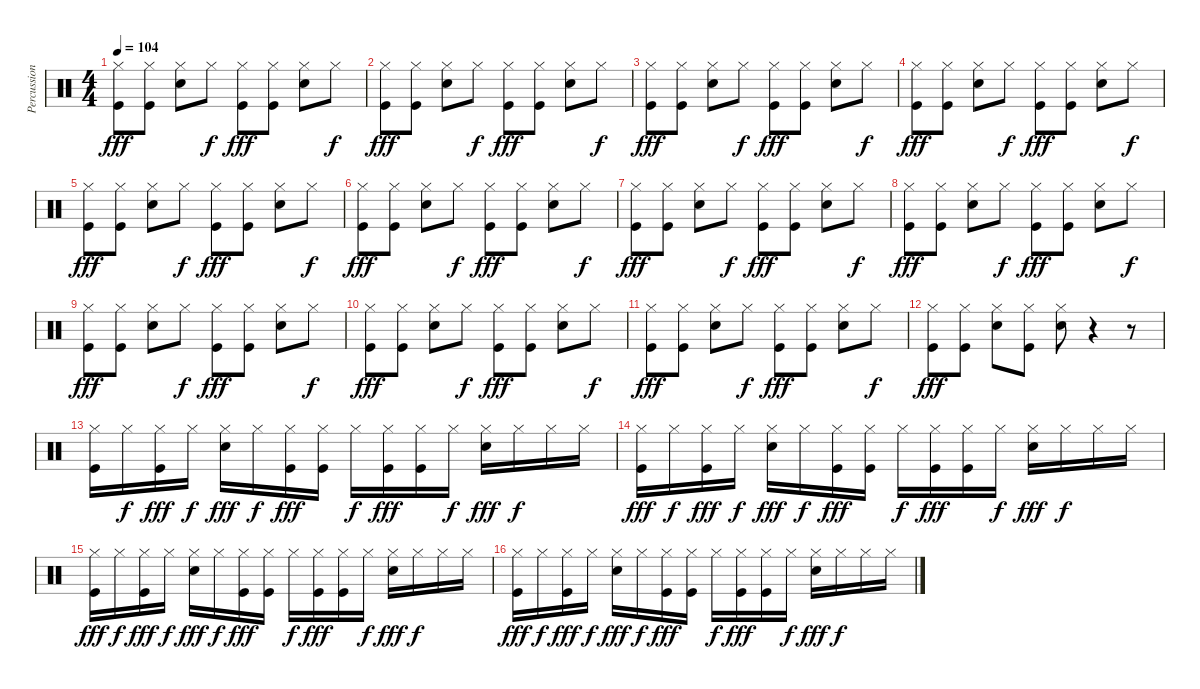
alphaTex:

\track ("Percussion" "Percussion") {instrument percussion}
\staff {score}
\articulation defaults
\ts (4 4)
\tempo 104
\clef neutral
\ks c
("Kick (hit)" "Hi-Hat (closed)").8{dy fff} ("Kick (hit)" "Hi-Hat (closed)").8 ("Snare (hit) 2" "Hi-Hat (closed)").8 "Hi-Hat (closed)".8{dy f} ("Kick (hit)" "Hi-Hat (closed)").8{dy fff} ("Kick (hit)" "Hi-Hat (closed)").8 ("Snare (hit) 2" "Hi-Hat (closed)").8 "Hi-Hat (closed)".8{dy f} |
("Kick (hit)" "Hi-Hat (closed)").8{dy fff} ("Kick (hit)" "Hi-Hat (closed)").8 ("Snare (hit) 2" "Hi-Hat (closed)").8 "Hi-Hat (closed)".8{dy f} ("Kick (hit)" "Hi-Hat (closed)").8{dy fff} ("Kick (hit)" "Hi-Hat (closed)").8 ("Snare (hit) 2" "Hi-Hat (closed)").8 "Hi-Hat (closed)".8{dy f} |
("Kick (hit)" "Hi-Hat (closed)").8{dy fff} ("Kick (hit)" "Hi-Hat (closed)").8 ("Snare (hit) 2" "Hi-Hat (closed)").8 "Hi-Hat (closed)".8{dy f} ("Kick (hit)" "Hi-Hat (closed)").8{dy fff} ("Kick (hit)" "Hi-Hat (closed)").8 ("Snare (hit) 2" "Hi-Hat (closed)").8 "Hi-Hat (closed)".8{dy f} |
("Kick (hit)" "Hi-Hat (closed)").8{dy fff} ("Kick (hit)" "Hi-Hat (closed)").8 ("Snare (hit) 2" "Hi-Hat (closed)").8 "Hi-Hat (closed)".8{dy f} ("Kick (hit)" "Hi-Hat (closed)").8{dy fff} ("Kick (hit)" "Hi-Hat (closed)").8 ("Snare (hit) 2" "Hi-Hat (closed)").8 "Hi-Hat (closed)".8{dy f} |
("Kick (hit)" "Hi-Hat (closed)").8{dy fff} ("Kick (hit)" "Hi-Hat (closed)").8 ("Snare (hit) 2" "Hi-Hat (closed)").8 "Hi-Hat (closed)".8{dy f} ("Kick (hit)" "Hi-Hat (closed)").8{dy fff} ("Kick (hit)" "Hi-Hat (closed)").8 ("Snare (hit) 2" "Hi-Hat (closed)").8 "Hi-Hat (closed)".8{dy f} |
("Kick (hit)" "Hi-Hat (closed)").8{dy fff} ("Kick (hit)" "Hi-Hat (closed)").8 ("Snare (hit) 2" "Hi-Hat (closed)").8 "Hi-Hat (closed)".8{dy f} ("Kick (hit)" "Hi-Hat (closed)").8{dy fff} ("Kick (hit)" "Hi-Hat (closed)").8 ("Snare (hit) 2" "Hi-Hat (closed)").8 "Hi-Hat (closed)".8{dy f} |
("Kick (hit)" "Hi-Hat (closed)").8{dy fff} ("Kick (hit)" "Hi-Hat (closed)").8 ("Snare (hit) 2" "Hi-Hat (closed)").8 "Hi-Hat (closed)".8{dy f} ("Kick (hit)" "Hi-Hat (closed)").8{dy fff} ("Kick (hit)" "Hi-Hat (closed)").8 ("Snare (hit) 2" "Hi-Hat (closed)").8 "Hi-Hat (closed)".8{dy f} |
("Kick (hit)" "Hi-Hat (closed)").8{dy fff} ("Kick (hit)" "Hi-Hat (closed)").8 ("Snare (hit) 2" "Hi-Hat (closed)").8 "Hi-Hat (closed)".8{dy f} ("Kick (hit)" "Hi-Hat (closed)").8{dy fff} ("Kick (hit)" "Hi-Hat (closed)").8 ("Snare (hit) 2" "Hi-Hat (closed)").8 "Hi-Hat (closed)".8{dy f} |
("Kick (hit)" "Hi-Hat (closed)").8{dy fff} ("Kick (hit)" "Hi-Hat (closed)").8 ("Snare (hit) 2" "Hi-Hat (closed)").8 "Hi-Hat (closed)".8{dy f} ("Kick (hit)" "Hi-Hat (closed)").8{dy fff} ("Kick (hit)" "Hi-Hat (closed)").8 ("Snare (hit) 2" "Hi-Hat (closed)").8 "Hi-Hat (closed)".8{dy f} |
("Kick (hit)" "Hi-Hat (closed)").8{dy fff} ("Kick (hit)" "Hi-Hat (closed)").8 ("Snare (hit) 2" "Hi-Hat (closed)").8 "Hi-Hat (closed)".8{dy f} ("Kick (hit)" "Hi-Hat (closed)").8{dy fff} ("Kick (hit)" "Hi-Hat (closed)").8 ("Snare (hit) 2" "Hi-Hat (closed)").8 "Hi-Hat (closed)".8{dy f} |
("Kick (hit)" "Hi-Hat (closed)").8{dy fff} ("Kick (hit)" "Hi-Hat (closed)").8 ("Snare (hit) 2" "Hi-Hat (closed)").8 "Hi-Hat (closed)".8{dy f} ("Kick (hit)" "Hi-Hat (closed)").8{dy fff} ("Kick (hit)" "Hi-Hat (closed)").8 ("Snare (hit) 2" "Hi-Hat (closed)").8 "Hi-Hat (closed)".8{dy f} |
("Kick (hit)" "Hi-Hat (closed)").8{dy fff} ("Kick (hit)" "Hi-Hat (closed)").8 ("Snare (hit) 2" "Hi-Hat (closed)").8 ("Kick (hit)" "Hi-Hat (closed)").8 ("Snare (hit) 2" "Hi-Hat (closed)").8 r.4 r.8 |
("Kick (hit)" "Hi-Hat (closed)").16 "Hi-Hat (closed)".16{dy f} ("Kick (hit)" "Hi-Hat (closed)").16{dy fff} "Hi-Hat (closed)".16{dy f} ("Snare (hit) 2" "Hi-Hat (closed)").16{dy fff} "Hi-Hat (closed)".16{dy f} ("Kick (hit)" "Hi-Hat (closed)").16{dy fff} ("Kick (hit)" "Hi-Hat (closed)").16 "Hi-Hat (closed)".16{dy f} ("Kick (hit)" "Hi-Hat (closed)").16{dy fff} ("Kick (hit)" "Hi-Hat (closed)").16 "Hi-Hat (closed)".16{dy f} ("Snare (hit) 2" "Hi-Hat (closed)").16{dy fff} "Hi-Hat (closed)".16{dy f} "Hi-Hat (closed)".16 "Hi-Hat (closed)".16 |
("Kick (hit)" "Hi-Hat (closed)").16{dy fff} "Hi-Hat (closed)".16{dy f} ("Kick (hit)" "Hi-Hat (closed)").16{dy fff} "Hi-Hat (closed)".16{dy f} ("Snare (hit) 2" "Hi-Hat (closed)").16{dy fff} "Hi-Hat (closed)".16{dy f} ("Kick (hit)" "Hi-Hat (closed)").16{dy fff} ("Kick (hit)" "Hi-Hat (closed)").16 "Hi-Hat (closed)".16{dy f} ("Kick (hit)" "Hi-Hat (closed)").16{dy fff} ("Kick (hit)" "Hi-Hat (closed)").16 "Hi-Hat (closed)".16{dy f} ("Snare (hit) 2" "Hi-Hat (closed)").16{dy fff} "Hi-Hat (closed)".16{dy f} "Hi-Hat (closed)".16 "Hi-Hat (closed)".16 |
("Kick (hit)" "Hi-Hat (closed)").16{dy fff} "Hi-Hat (closed)".16{dy f} ("Kick (hit)" "Hi-Hat (closed)").16{dy fff} "Hi-Hat (closed)".16{dy f} ("Snare (hit) 2" "Hi-Hat (closed)").16{dy fff} "Hi-Hat (closed)".16{dy f} ("Kick (hit)" "Hi-Hat (closed)").16{dy fff} ("Kick (hit)" "Hi-Hat (closed)").16 "Hi-Hat (closed)".16{dy f} ("Kick (hit)" "Hi-Hat (closed)").16{dy fff} ("Kick (hit)" "Hi-Hat (closed)").16 "Hi-Hat (closed)".16{dy f} ("Snare (hit) 2" "Hi-Hat (closed)").16{dy fff} "Hi-Hat (closed)".16{dy f} "Hi-Hat (closed)".16 "Hi-Hat (closed)".16 |
("Kick (hit)" "Hi-Hat (closed)").16{dy fff} "Hi-Hat (closed)".16{dy f} ("Kick (hit)" "Hi-Hat (closed)").16{dy fff} "Hi-Hat (closed)".16{dy f} ("Snare (hit) 2" "Hi-Hat (closed)").16{dy fff} "Hi-Hat (closed)".16{dy f} ("Kick (hit)" "Hi-Hat (closed)").16{dy fff} ("Kick (hit)" "Hi-Hat (closed)").16 "Hi-Hat (closed)".16{dy f} ("Kick (hit)" "Hi-Hat (closed)").16{dy fff} ("Kick (hit)" "Hi-Hat (closed)").16 "Hi-Hat (closed)".16{dy f} ("Snare (hit) 2" "Hi-Hat (closed)").16{dy fff} "Hi-Hat (closed)".16{dy f} "Hi-Hat (closed)".16 "Hi-Hat (closed)".16
